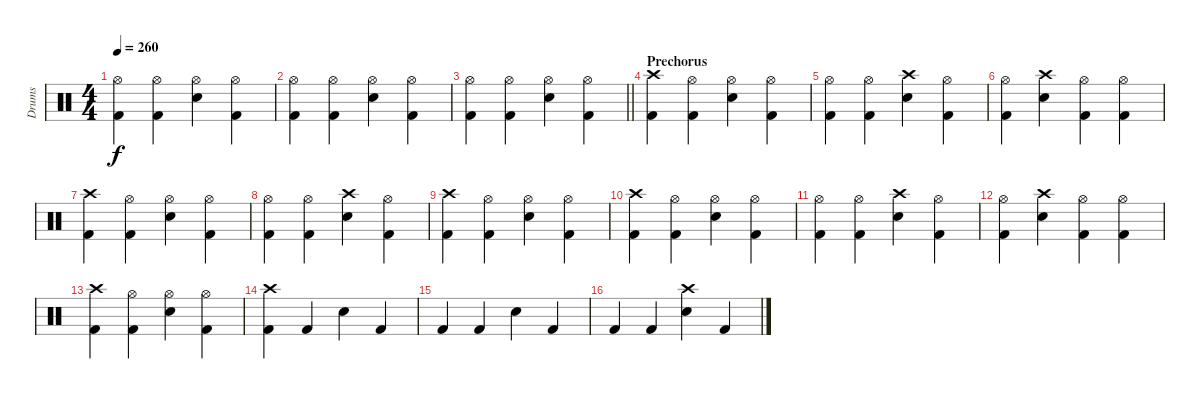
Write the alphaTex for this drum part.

\track ("Drums" "Drums") {instrument percussion bank 2}
\staff {score}
\articulation defaults
\ts (4 4)
\tempo 260
\clef neutral
\ks c
("Kick (hit) 2" "Hi-Hat (open)").4{dy f} ("Kick (hit) 2" "Hi-Hat (open)").4 ("Snare (hit) 2" "Hi-Hat (open)").4 ("Kick (hit) 2" "Hi-Hat (open)").4 |
("Kick (hit) 2" "Hi-Hat (open)").4 ("Kick (hit) 2" "Hi-Hat (open)").4 ("Snare (hit) 2" "Hi-Hat (open)").4 ("Kick (hit) 2" "Hi-Hat (open)").4 |
\barLineRight lightlight
("Kick (hit) 2" "Hi-Hat (open)").4 ("Kick (hit) 2" "Hi-Hat (open)").4 ("Snare (hit) 2" "Hi-Hat (open)").4 ("Kick (hit) 2" "Hi-Hat (open)").4 |
\section ("" "Prechorus")
("Crash high (hit)" "Kick (hit) 2").4 ("Hi-Hat (open)" "Kick (hit) 2").4 ("Hi-Hat (open)" "Snare (hit) 2").4 ("Hi-Hat (open)" "Kick (hit) 2").4 |
("Hi-Hat (open)" "Kick (hit) 2").4 ("Hi-Hat (open)" "Kick (hit) 2").4 ("Snare (hit) 2" "Crash high (hit)").4 ("Hi-Hat (open)" "Kick (hit) 2").4 |
("Hi-Hat (open)" "Kick (hit) 2").4 ("Snare (hit) 2" "Crash high (hit)").4 ("Hi-Hat (open)" "Kick (hit) 2").4 ("Hi-Hat (open)" "Kick (hit) 2").4 |
("Crash high (hit)" "Kick (hit) 2").4 ("Hi-Hat (open)" "Kick (hit) 2").4 ("Hi-Hat (open)" "Snare (hit) 2").4 ("Hi-Hat (open)" "Kick (hit) 2").4 |
("Hi-Hat (open)" "Kick (hit) 2").4 ("Hi-Hat (open)" "Kick (hit) 2").4 ("Snare (hit) 2" "Crash high (hit)").4 ("Hi-Hat (open)" "Kick (hit) 2").4 |
("Crash high (hit)" "Kick (hit) 2").4 ("Hi-Hat (open)" "Kick (hit) 2").4 ("Hi-Hat (open)" "Snare (hit) 2").4 ("Hi-Hat (open)" "Kick (hit) 2").4 |
("Crash high (hit)" "Kick (hit) 2").4 ("Hi-Hat (open)" "Kick (hit) 2").4 ("Hi-Hat (open)" "Snare (hit) 2").4 ("Hi-Hat (open)" "Kick (hit) 2").4 |
("Hi-Hat (open)" "Kick (hit) 2").4 ("Hi-Hat (open)" "Kick (hit) 2").4 ("Snare (hit) 2" "Crash high (hit)").4 ("Hi-Hat (open)" "Kick (hit) 2").4 |
("Hi-Hat (open)" "Kick (hit) 2").4 ("Snare (hit) 2" "Crash high (hit)").4 ("Hi-Hat (open)" "Kick (hit) 2").4 ("Hi-Hat (open)" "Kick (hit) 2").4 |
("Crash high (hit)" "Kick (hit) 2").4 ("Hi-Hat (open)" "Kick (hit) 2").4 ("Hi-Hat (open)" "Snare (hit) 2").4 ("Hi-Hat (open)" "Kick (hit) 2").4 |
("Crash high (hit)" "Kick (hit) 2").4 "Kick (hit) 2".4 "Snare (hit) 2".4 "Kick (hit) 2".4 |
"Kick (hit) 2".4 "Kick (hit) 2".4 "Snare (hit) 2".4 "Kick (hit) 2".4 |
"Kick (hit) 2".4 "Kick (hit) 2".4 ("Crash high (hit)" "Snare (hit) 2").4 "Kick (hit) 2".4
